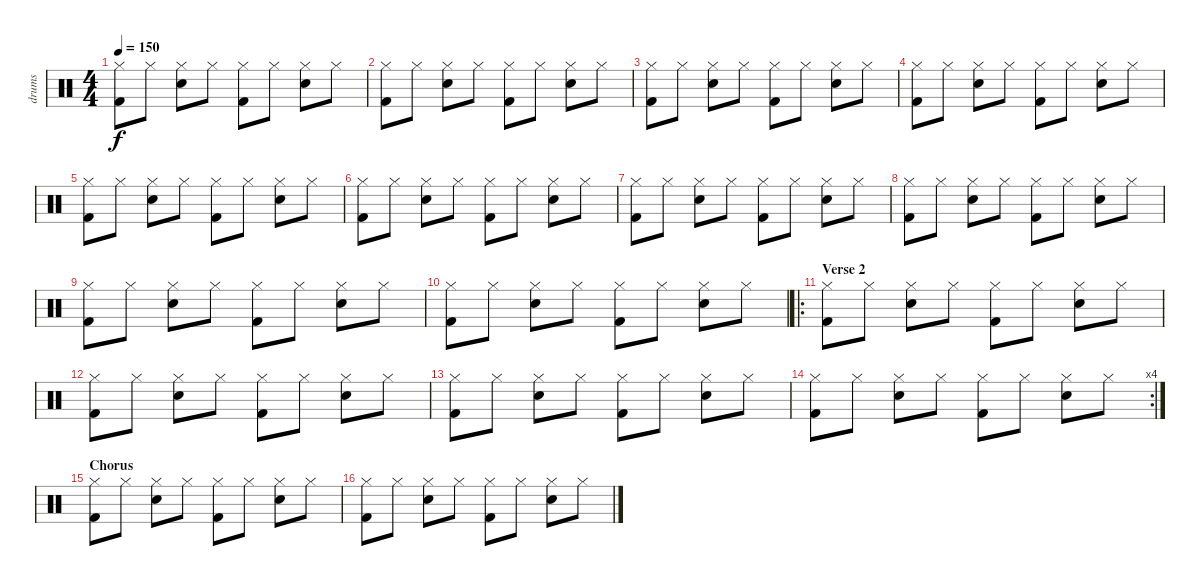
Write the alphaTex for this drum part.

\track ("drums" "drums") {instrument percussion}
\staff {score}
\articulation defaults
\ts (4 4)
\tempo 150
\clef neutral
\ks c
("Hi-Hat (closed)" "Kick (hit) 2").8{dy f} "Hi-Hat (closed)".8 ("Hi-Hat (closed)" "Electric Snare (hit)").8 "Hi-Hat (closed)".8 ("Hi-Hat (closed)" "Kick (hit) 2").8 "Hi-Hat (closed)".8 ("Hi-Hat (closed)" "Electric Snare (hit)").8 "Hi-Hat (closed)".8 |
("Hi-Hat (closed)" "Kick (hit) 2").8 "Hi-Hat (closed)".8 ("Hi-Hat (closed)" "Electric Snare (hit)").8 "Hi-Hat (closed)".8 ("Hi-Hat (closed)" "Kick (hit) 2").8 "Hi-Hat (closed)".8 ("Hi-Hat (closed)" "Electric Snare (hit)").8 "Hi-Hat (closed)".8 |
("Hi-Hat (closed)" "Kick (hit) 2").8 "Hi-Hat (closed)".8 ("Hi-Hat (closed)" "Electric Snare (hit)").8 "Hi-Hat (closed)".8 ("Hi-Hat (closed)" "Kick (hit) 2").8 "Hi-Hat (closed)".8 ("Hi-Hat (closed)" "Electric Snare (hit)").8 "Hi-Hat (closed)".8 |
("Hi-Hat (closed)" "Kick (hit) 2").8 "Hi-Hat (closed)".8 ("Hi-Hat (closed)" "Electric Snare (hit)").8 "Hi-Hat (closed)".8 ("Hi-Hat (closed)" "Kick (hit) 2").8 "Hi-Hat (closed)".8 ("Hi-Hat (closed)" "Electric Snare (hit)").8 "Hi-Hat (closed)".8 |
("Hi-Hat (closed)" "Kick (hit) 2").8 "Hi-Hat (closed)".8 ("Hi-Hat (closed)" "Electric Snare (hit)").8 "Hi-Hat (closed)".8 ("Hi-Hat (closed)" "Kick (hit) 2").8 "Hi-Hat (closed)".8 ("Hi-Hat (closed)" "Electric Snare (hit)").8 "Hi-Hat (closed)".8 |
("Hi-Hat (closed)" "Kick (hit) 2").8 "Hi-Hat (closed)".8 ("Hi-Hat (closed)" "Electric Snare (hit)").8 "Hi-Hat (closed)".8 ("Hi-Hat (closed)" "Kick (hit) 2").8 "Hi-Hat (closed)".8 ("Hi-Hat (closed)" "Electric Snare (hit)").8 "Hi-Hat (closed)".8 |
("Hi-Hat (closed)" "Kick (hit) 2").8 "Hi-Hat (closed)".8 ("Hi-Hat (closed)" "Electric Snare (hit)").8 "Hi-Hat (closed)".8 ("Hi-Hat (closed)" "Kick (hit) 2").8 "Hi-Hat (closed)".8 ("Hi-Hat (closed)" "Electric Snare (hit)").8 "Hi-Hat (closed)".8 |
("Hi-Hat (closed)" "Kick (hit) 2").8 "Hi-Hat (closed)".8 ("Hi-Hat (closed)" "Electric Snare (hit)").8 "Hi-Hat (closed)".8 ("Hi-Hat (closed)" "Kick (hit) 2").8 "Hi-Hat (closed)".8 ("Hi-Hat (closed)" "Electric Snare (hit)").8 "Hi-Hat (closed)".8 |
("Hi-Hat (closed)" "Kick (hit) 2").8 "Hi-Hat (closed)".8 ("Hi-Hat (closed)" "Electric Snare (hit)").8 "Hi-Hat (closed)".8 ("Hi-Hat (closed)" "Kick (hit) 2").8 "Hi-Hat (closed)".8 ("Hi-Hat (closed)" "Electric Snare (hit)").8 "Hi-Hat (closed)".8 |
("Hi-Hat (closed)" "Kick (hit) 2").8 "Hi-Hat (closed)".8 ("Hi-Hat (closed)" "Electric Snare (hit)").8 "Hi-Hat (closed)".8 ("Hi-Hat (closed)" "Kick (hit) 2").8 "Hi-Hat (closed)".8 ("Hi-Hat (closed)" "Electric Snare (hit)").8 "Hi-Hat (closed)".8 |
\ro
\section ("" "Verse 2")
("Hi-Hat (closed)" "Kick (hit) 2").8 "Hi-Hat (closed)".8 ("Hi-Hat (closed)" "Electric Snare (hit)").8 "Hi-Hat (closed)".8 ("Hi-Hat (closed)" "Kick (hit) 2").8 "Hi-Hat (closed)".8 ("Hi-Hat (closed)" "Electric Snare (hit)").8 "Hi-Hat (closed)".8 |
("Hi-Hat (closed)" "Kick (hit) 2").8 "Hi-Hat (closed)".8 ("Hi-Hat (closed)" "Electric Snare (hit)").8 "Hi-Hat (closed)".8 ("Hi-Hat (closed)" "Kick (hit) 2").8 "Hi-Hat (closed)".8 ("Hi-Hat (closed)" "Electric Snare (hit)").8 "Hi-Hat (closed)".8 |
("Hi-Hat (closed)" "Kick (hit) 2").8 "Hi-Hat (closed)".8 ("Hi-Hat (closed)" "Electric Snare (hit)").8 "Hi-Hat (closed)".8 ("Hi-Hat (closed)" "Kick (hit) 2").8 "Hi-Hat (closed)".8 ("Hi-Hat (closed)" "Electric Snare (hit)").8 "Hi-Hat (closed)".8 |
\rc 4
("Hi-Hat (closed)" "Kick (hit) 2").8 "Hi-Hat (closed)".8 ("Hi-Hat (closed)" "Electric Snare (hit)").8 "Hi-Hat (closed)".8 ("Hi-Hat (closed)" "Kick (hit) 2").8 "Hi-Hat (closed)".8 ("Hi-Hat (closed)" "Electric Snare (hit)").8 "Hi-Hat (closed)".8 |
\section ("" "Chorus")
("Hi-Hat (closed)" "Kick (hit) 2").8 "Hi-Hat (closed)".8 ("Hi-Hat (closed)" "Electric Snare (hit)").8 "Hi-Hat (closed)".8 ("Hi-Hat (closed)" "Kick (hit) 2").8 "Hi-Hat (closed)".8 ("Hi-Hat (closed)" "Electric Snare (hit)").8 "Hi-Hat (closed)".8 |
("Hi-Hat (closed)" "Kick (hit) 2").8 "Hi-Hat (closed)".8 ("Hi-Hat (closed)" "Electric Snare (hit)").8 "Hi-Hat (closed)".8 ("Hi-Hat (closed)" "Kick (hit) 2").8 "Hi-Hat (closed)".8 ("Hi-Hat (closed)" "Electric Snare (hit)").8 "Hi-Hat (closed)".8
